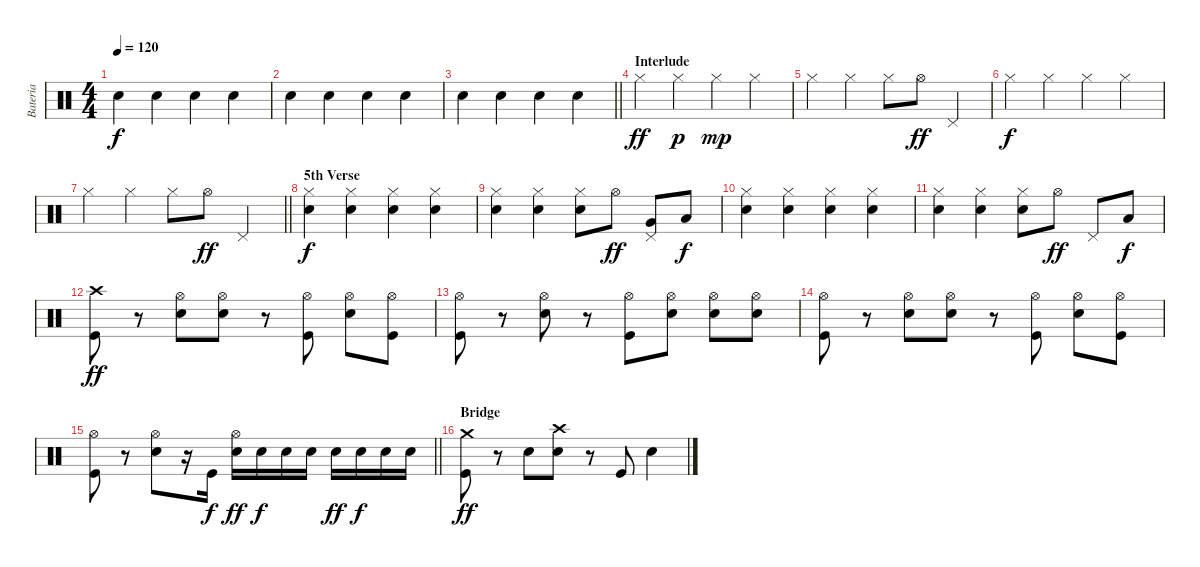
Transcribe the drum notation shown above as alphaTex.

\track ("Bateria" "Bateria") {instrument percussion}
\staff {score}
\articulation defaults
\ts (4 4)
\tempo 120
\clef neutral
\ks c "Snare (hit) 2".4{dy f} "Snare (hit) 2".4 "Snare (hit) 2".4 "Snare (hit) 2".4
|
"Snare (hit) 2".4 "Snare (hit) 2".4 "Snare (hit) 2".4 "Snare (hit) 2".4 |
\barLineRight lightlight "Snare (hit) 2".4 "Snare (hit) 2".4 "Snare (hit) 2".4 "Snare (hit) 2".4
|
\section ("" "Interlude")
"Hi-Hat (closed)".4{dy ff} "Hi-Hat (closed)".4{dy p} "Hi-Hat (closed)".4{dy mp} "Hi-Hat (closed)".4 |
"Hi-Hat (closed)".4 "Hi-Hat (closed)".4 "Hi-Hat (closed)".8 "Hi-Hat (open)".8{dy ff} "Pedal Hi-Hat (hit)".4 |
"Hi-Hat (closed)".4{dy f} "Hi-Hat (closed)".4 "Hi-Hat (closed)".4 "Hi-Hat (closed)".4 |
\barLineRight lightlight "Hi-Hat (closed)".4 "Hi-Hat (closed)".4 "Hi-Hat (closed)".8 "Hi-Hat (open)".8{dy ff} "Pedal Hi-Hat (hit)".4
|
\section ("" "5th Verse")
("Hi-Hat (closed)" "Snare (hit) 2").4{dy f} ("Hi-Hat (closed)" "Snare (hit) 2").4 ("Hi-Hat (closed)" "Snare (hit) 2").4 ("Hi-Hat (closed)" "Snare (hit) 2").4 |
("Hi-Hat (closed)" "Snare (hit) 2").4 ("Hi-Hat (closed)" "Snare (hit) 2").4 ("Hi-Hat (closed)" "Snare (hit) 2").8 "Hi-Hat (open)".8{dy ff} ("Pedal Hi-Hat (hit)" "Very Low Tom (hit)").8 "Low Floor Tom (hit)".8{dy f} |
("Hi-Hat (closed)" "Snare (hit) 2").4 ("Hi-Hat (closed)" "Snare (hit) 2").4 ("Hi-Hat (closed)" "Snare (hit) 2").4 ("Hi-Hat (closed)" "Snare (hit) 2").4 |
("Hi-Hat (closed)" "Snare (hit) 2").4 ("Hi-Hat (closed)" "Snare (hit) 2").4 ("Hi-Hat (closed)" "Snare (hit) 2").8 "Hi-Hat (open)".8{dy ff} "Pedal Hi-Hat (hit)".8 "Low Floor Tom (hit)".8{dy f} |
("Crash high (hit)" "Kick (hit)").8{dy ff} r.8 ("Hi-Hat (open)" "Snare (hit) 2").8 ("Hi-Hat (open)" "Snare (hit) 2").8 r.8 ("Hi-Hat (open)" "Kick (hit)").8 ("Hi-Hat (open)" "Snare (hit) 2").8 ("Hi-Hat (open)" "Kick (hit)").8 |
("Hi-Hat (open)" "Kick (hit)").8 r.8 ("Hi-Hat (open)" "Snare (hit) 2").8 r.8 ("Hi-Hat (open)" "Kick (hit)").8 ("Hi-Hat (open)" "Snare (hit) 2").8 ("Hi-Hat (open)" "Snare (hit) 2").8 ("Hi-Hat (open)" "Snare (hit) 2").8 |
("Hi-Hat (open)" "Kick (hit)").8 r.8 ("Hi-Hat (open)" "Snare (hit) 2").8 ("Hi-Hat (open)" "Snare (hit) 2").8 r.8 ("Hi-Hat (open)" "Kick (hit)").8 ("Hi-Hat (open)" "Snare (hit) 2").8 ("Hi-Hat (open)" "Kick (hit)").8 |
\barLineRight lightlight
("Hi-Hat (open)" "Kick (hit)").8 r.8 ("Hi-Hat (open)" "Snare (hit) 2").8 r.16 "Kick (hit)".16{dy f} ("Hi-Hat (open)" "Snare (hit) 2").16{dy ff} "Snare (hit) 2".16{dy f} "Snare (hit) 2".16 "Snare (hit) 2".16 "Snare (hit) 2".16{dy ff} "Snare (hit) 2".16{dy f} "Snare (hit) 2".16 "Snare (hit) 2".16 |
\section ("" "Bridge")
("Crash medium (hit)" "Kick (hit)").8{dy ff} r.8 "Snare (hit) 2".8 ("Crash high (hit)" "Snare (hit) 2").8 r.8 "Kick (hit)".8 "Snare (hit) 2".4
